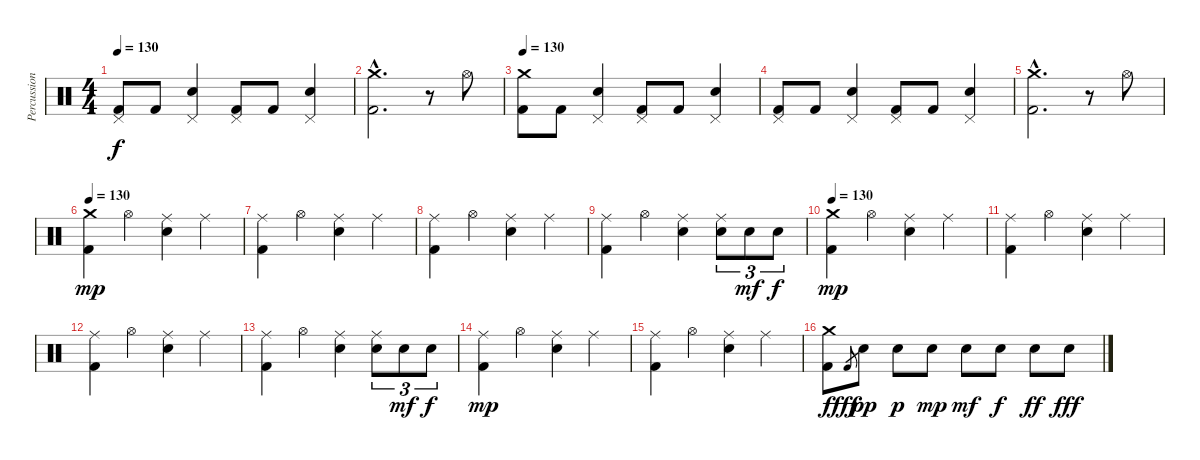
\track ("Percussions" "Percussion") {instrument percussion}
\staff {score}
\articulation defaults
\ts (4 4)
\tempo 130
\clef neutral
\ks c
("Pedal Hi-Hat (hit)" "Kick (hit) 2").8{dy f} "Kick (hit) 2".8 ("Pedal Hi-Hat (hit)" "Snare (hit) 2").4 ("Pedal Hi-Hat (hit)" "Kick (hit) 2").8 "Kick (hit) 2".8 ("Pedal Hi-Hat (hit)" "Snare (hit) 2").4 |
("Crash medium (hit)"{hac} "Kick (hit) 2"{hac}).2{d} r.8 "Hi-Hat (open)".8 |
\tempo 130
("Crash medium (hit)" "Kick (hit) 2").8 "Kick (hit) 2".8 ("Pedal Hi-Hat (hit)" "Snare (hit) 2").4 ("Pedal Hi-Hat (hit)" "Kick (hit) 2").8 "Kick (hit) 2".8 ("Pedal Hi-Hat (hit)" "Snare (hit) 2").4 |
("Pedal Hi-Hat (hit)" "Kick (hit) 2").8 "Kick (hit) 2".8 ("Pedal Hi-Hat (hit)" "Snare (hit) 2").4 ("Pedal Hi-Hat (hit)" "Kick (hit) 2").8 "Kick (hit) 2".8 ("Pedal Hi-Hat (hit)" "Snare (hit) 2").4 |
("Crash medium (hit)"{hac} "Kick (hit) 2"{hac}).2{d} r.8 "Hi-Hat (open)".8 |
\tempo 130
("Crash medium (hit)" "Kick (hit) 2").4{dy mp} "Hi-Hat (open)".4 ("Ride (middle)" "Snare (hit) 2").4 "Ride (middle)".4 |
("Ride (middle)" "Kick (hit) 2").4 "Hi-Hat (open)".4 ("Ride (middle)" "Snare (hit) 2").4 "Ride (middle)".4 |
("Ride (middle)" "Kick (hit) 2").4 "Hi-Hat (open)".4 ("Ride (middle)" "Snare (hit) 2").4 "Ride (middle)".4 |
("Ride (middle)" "Kick (hit) 2").4 "Hi-Hat (open)".4 ("Ride (middle)" "Snare (hit) 2").4 ("Ride (middle)" "Snare (hit) 2").8{tu (3 2)} "Snare (hit) 2".8{tu (3 2) dy mf} "Snare (hit) 2".8{tu (3 2) dy f} |
\tempo 130
("Crash medium (hit)" "Kick (hit) 2").4{dy mp} "Hi-Hat (open)".4 ("Ride (middle)" "Snare (hit) 2").4 "Ride (middle)".4 |
("Ride (middle)" "Kick (hit) 2").4 "Hi-Hat (open)".4 ("Ride (middle)" "Snare (hit) 2").4 "Ride (middle)".4 |
("Ride (middle)" "Kick (hit) 2").4 "Hi-Hat (open)".4 ("Ride (middle)" "Snare (hit) 2").4 "Ride (middle)".4 |
("Ride (middle)" "Kick (hit) 2").4 "Hi-Hat (open)".4 ("Ride (middle)" "Snare (hit) 2").4 ("Ride (middle)" "Snare (hit) 2").8{tu (3 2)} "Snare (hit) 2".8{tu (3 2) dy mf} "Snare (hit) 2".8{tu (3 2) dy f} |
("Ride (middle)" "Kick (hit) 2").4{dy mp} "Hi-Hat (open)".4 ("Ride (middle)" "Snare (hit) 2").4 "Ride (middle)".4 |
("Ride (middle)" "Kick (hit) 2").4 "Hi-Hat (open)".4 ("Ride (middle)" "Snare (hit) 2").4 "Ride (middle)".4 |
("Crash medium (hit)" "Kick (hit) 2").8{dy f} "Kick (hit) 2".8{gr dy fff} "Snare (hit) 2".8{dy pp} "Snare (hit) 2".8{dy p} "Snare (hit) 2".8{dy mp} "Snare (hit) 2".8{dy mf} "Snare (hit) 2".8{dy f} "Snare (hit) 2".8{dy ff} "Snare (hit) 2".8{dy fff}
